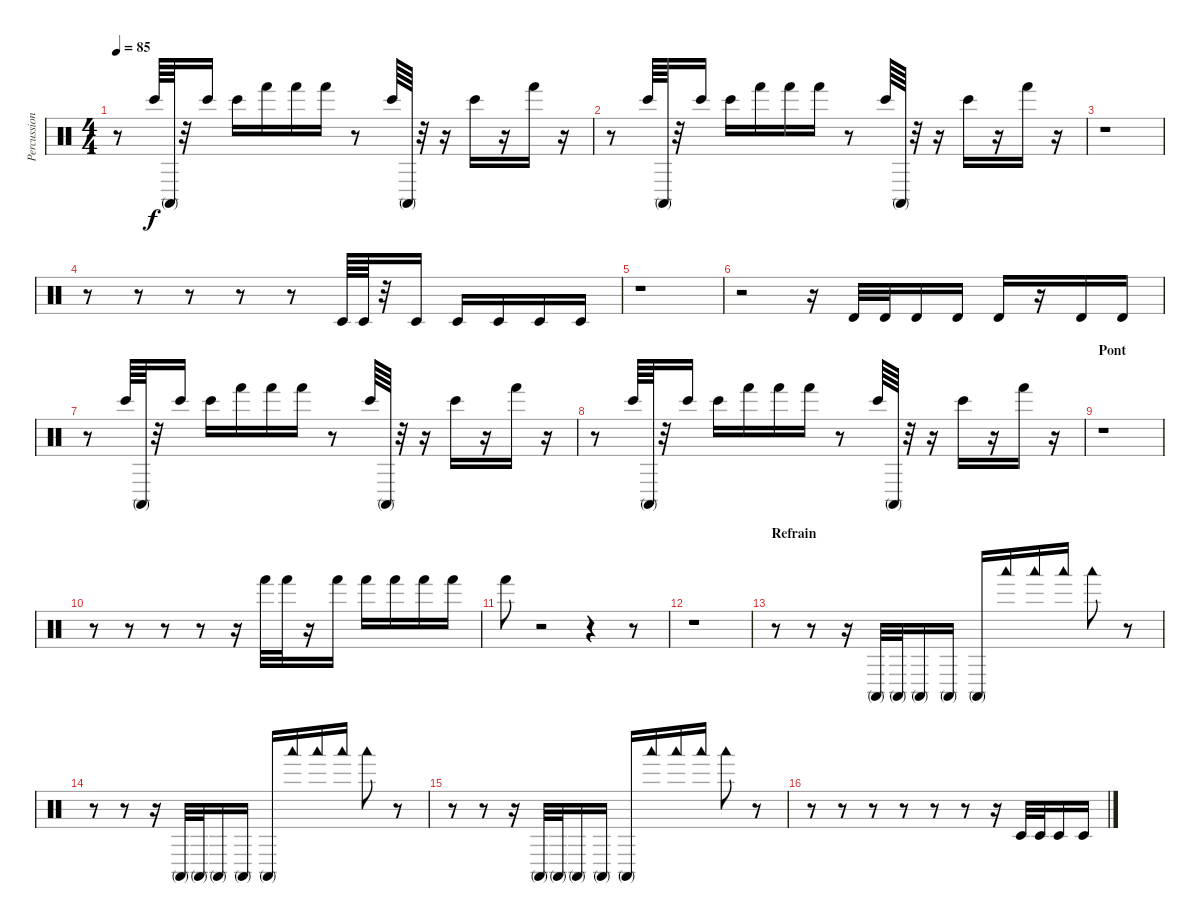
\track ("Percussions" "Percussion") {instrument percussion}
\staff {score}
\articulation defaults
\ts (4 4)
\tempo 85
\clef neutral
\ks c
r.8{dy f} "Bongo High (hit)".64 "Conga high (mute)".64 r.32 "Bongo High (hit)".16 "Bongo High (hit)".16 "Hand (hit)".16 "Hand (hit)".16 "Hand (hit)".16 r.8 "Bongo High (hit)".64 "Conga high (mute)".64 r.32 r.16 "Bongo High (hit)".16 r.16 "Hand (hit)".16 r.16 |
r.8 "Bongo High (hit)".64 "Conga high (mute)".64 r.32 "Bongo High (hit)".16 "Bongo High (hit)".16 "Hand (hit)".16 "Hand (hit)".16 "Hand (hit)".16 r.8 "Bongo High (hit)".64 "Conga high (mute)".64 r.32 r.16 "Bongo High (hit)".16 r.16 "Hand (hit)".16 r.16 |
r.1 |
r.8 r.8 r.8 r.8 r.8 "Timbale low (hit)".64 "Timbale low (hit)".64 r.32 "Timbale low (hit)".16 "Timbale low (hit)".16 "Timbale low (hit)".16 "Timbale low (hit)".16 "Timbale low (hit)".16 |
r.1 |
r.2 r.16 "Timbale high (hit)".32 "Timbale high (hit)".32 "Timbale high (hit)".16 "Timbale high (hit)".16 "Timbale high (hit)".16 r.16 "Timbale high (hit)".16 "Timbale high (hit)".16 |
r.8 "Bongo High (hit)".64 "Conga high (mute)".64 r.32 "Bongo High (hit)".16 "Bongo High (hit)".16 "Hand (hit)".16 "Hand (hit)".16 "Hand (hit)".16 r.8 "Bongo High (hit)".64 "Conga high (mute)".64 r.32 r.16 "Bongo High (hit)".16 r.16 "Hand (hit)".16 r.16 |
r.8 "Bongo High (hit)".64 "Conga high (mute)".64 r.32 "Bongo High (hit)".16 "Bongo High (hit)".16 "Hand (hit)".16 "Hand (hit)".16 "Hand (hit)".16 r.8 "Bongo High (hit)".64 "Conga high (mute)".64 r.32 r.16 "Bongo High (hit)".16 r.16 "Hand (hit)".16 r.16 |
\section ("" "Pont")
r.1 |
r.8 r.8 r.8 r.8 r.16 "Hand (hit)".32 "Hand (hit)".32 r.16 "Hand (hit)".16 "Hand (hit)".16 "Hand (hit)".16 "Hand (hit)".16 "Hand (hit)".16 |
"Hand (hit)".8 r.2 r.4 r.8 |
r.1 |
\section ("" "Refrain")
r.8 r.8 r.16 "Conga high (mute)".32 "Conga high (mute)".32 "Conga high (mute)".16 "Conga high (mute)".16 "Conga high (mute)".16 "Woodblock low (hit)".16 "Woodblock low (hit)".16 "Woodblock low (hit)".16 "Woodblock low (hit)".8 r.8 |
r.8 r.8 r.16 "Conga high (mute)".32 "Conga high (mute)".32 "Conga high (mute)".16 "Conga high (mute)".16 "Conga high (mute)".16 "Woodblock low (hit)".16 "Woodblock low (hit)".16 "Woodblock low (hit)".16 "Woodblock low (hit)".8 r.8 |
r.8 r.8 r.16 "Conga high (mute)".32 "Conga high (mute)".32 "Conga high (mute)".16 "Conga high (mute)".16 "Conga high (mute)".16 "Woodblock low (hit)".16 "Woodblock low (hit)".16 "Woodblock low (hit)".16 "Woodblock low (hit)".8 r.8 |
r.8 r.8 r.8 r.8 r.8 r.8 r.16 "Timbale low (hit)".32 "Timbale low (hit)".32 "Timbale low (hit)".16 "Timbale low (hit)".16
